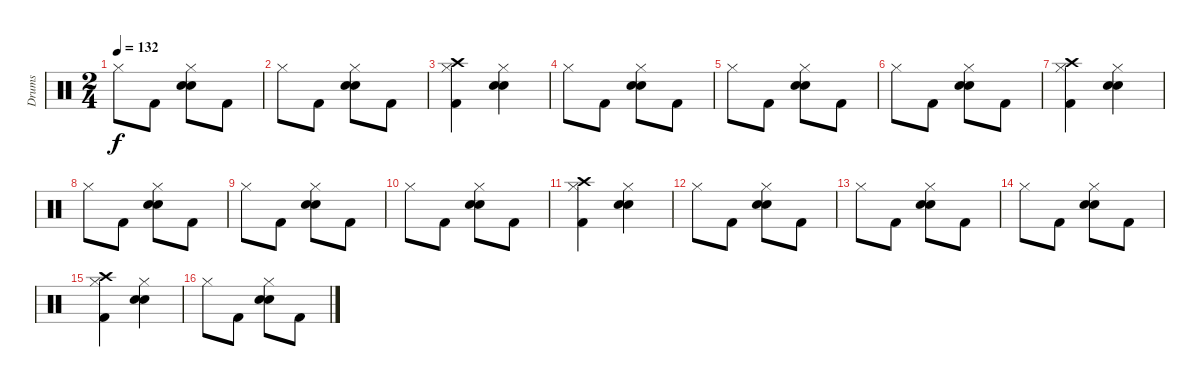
\track ("Drums" "Drums") {instrument percussion}
\staff {score}
\articulation defaults
\ts (2 4)
\tempo 132
\clef neutral
\ks c "Hi-Hat (closed)".8{dy f} "Kick (hit) 2".8
("Electric Snare (hit)" "Electric Snare (hit)" "Hi-Hat (closed)").8 "Kick (hit) 2".8 |
"Hi-Hat (closed)".8 "Kick (hit) 2".8 ("Electric Snare (hit)" "Electric Snare (hit)" "Hi-Hat (closed)").8 "Kick (hit) 2".8 |
("Kick (hit) 2" "Crash high (hit)" "Hi-Hat (closed)").4 ("Electric Snare (hit)" "Electric Snare (hit)" "Hi-Hat (closed)").4 |
"Hi-Hat (closed)".8 "Kick (hit) 2".8 ("Electric Snare (hit)" "Electric Snare (hit)" "Hi-Hat (closed)").8 "Kick (hit) 2".8 |
"Hi-Hat (closed)".8 "Kick (hit) 2".8 ("Electric Snare (hit)" "Electric Snare (hit)" "Hi-Hat (closed)").8 "Kick (hit) 2".8 |
"Hi-Hat (closed)".8 "Kick (hit) 2".8 ("Electric Snare (hit)" "Electric Snare (hit)" "Hi-Hat (closed)").8 "Kick (hit) 2".8 |
("Kick (hit) 2" "Crash high (hit)" "Hi-Hat (closed)").4 ("Electric Snare (hit)" "Electric Snare (hit)" "Hi-Hat (closed)").4 |
"Hi-Hat (closed)".8 "Kick (hit) 2".8 ("Electric Snare (hit)" "Electric Snare (hit)" "Hi-Hat (closed)").8 "Kick (hit) 2".8 |
"Hi-Hat (closed)".8 "Kick (hit) 2".8 ("Electric Snare (hit)" "Electric Snare (hit)" "Hi-Hat (closed)").8 "Kick (hit) 2".8 |
"Hi-Hat (closed)".8 "Kick (hit) 2".8 ("Electric Snare (hit)" "Electric Snare (hit)" "Hi-Hat (closed)").8 "Kick (hit) 2".8 |
("Kick (hit) 2" "Crash high (hit)" "Hi-Hat (closed)").4 ("Electric Snare (hit)" "Electric Snare (hit)" "Hi-Hat (closed)").4 |
"Hi-Hat (closed)".8 "Kick (hit) 2".8 ("Electric Snare (hit)" "Electric Snare (hit)" "Hi-Hat (closed)").8 "Kick (hit) 2".8 |
"Hi-Hat (closed)".8 "Kick (hit) 2".8 ("Electric Snare (hit)" "Electric Snare (hit)" "Hi-Hat (closed)").8 "Kick (hit) 2".8 |
"Hi-Hat (closed)".8 "Kick (hit) 2".8 ("Electric Snare (hit)" "Electric Snare (hit)" "Hi-Hat (closed)").8 "Kick (hit) 2".8 |
("Kick (hit) 2" "Crash high (hit)" "Hi-Hat (closed)").4 ("Electric Snare (hit)" "Electric Snare (hit)" "Hi-Hat (closed)").4 |
"Hi-Hat (closed)".8 "Kick (hit) 2".8 ("Electric Snare (hit)" "Electric Snare (hit)" "Hi-Hat (closed)").8 "Kick (hit) 2".8
